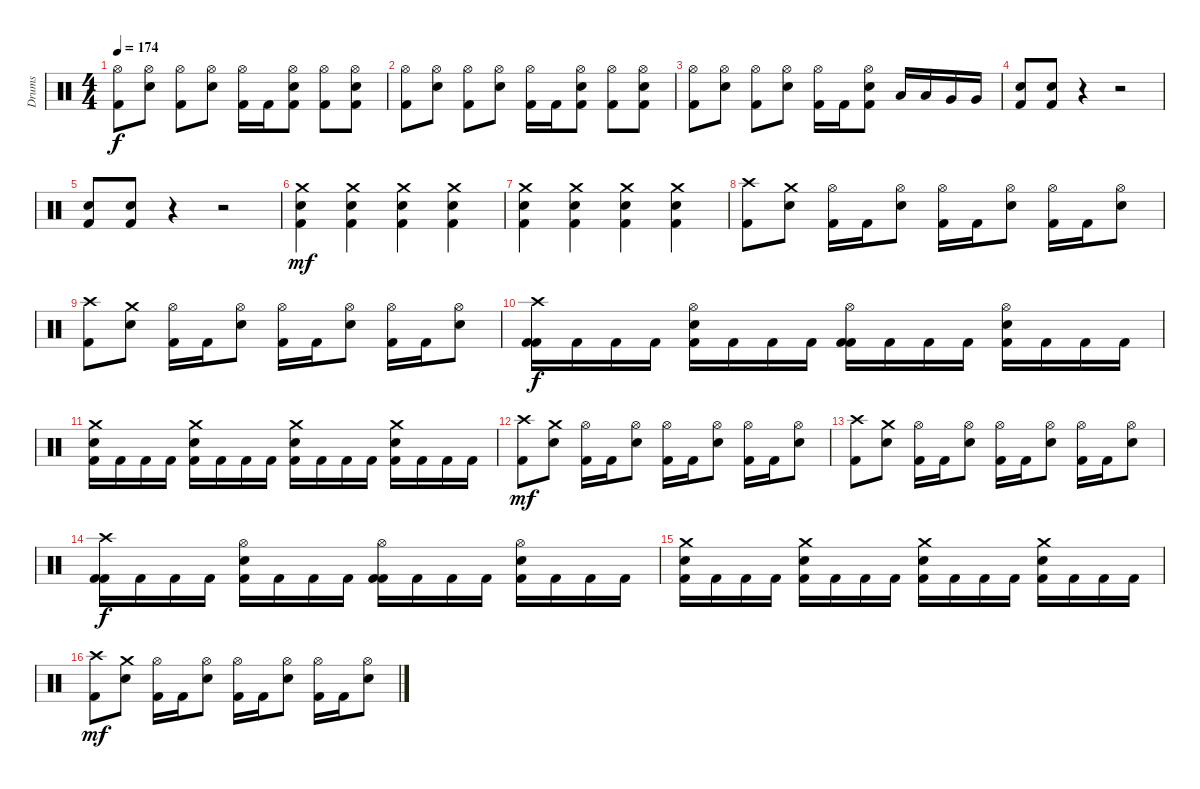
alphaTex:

\track ("Drums" "Drums") {instrument percussion}
\staff {score}
\articulation defaults
\ts (4 4)
\tempo 174
\clef neutral
\ks c
("Hi-Hat (open)" "Kick (hit) 2").8{dy f} ("Hi-Hat (open)" "Electric Snare (hit)").8 ("Hi-Hat (open)" "Kick (hit) 2").8 ("Hi-Hat (open)" "Electric Snare (hit)").8 ("Hi-Hat (open)" "Kick (hit) 2").16 "Kick (hit) 2".16 ("Hi-Hat (open)" "Electric Snare (hit)" "Kick (hit) 2").8 ("Hi-Hat (open)" "Kick (hit) 2").8 ("Hi-Hat (open)" "Electric Snare (hit)" "Kick (hit) 2").8 |
("Hi-Hat (open)" "Kick (hit) 2").8 ("Hi-Hat (open)" "Electric Snare (hit)").8 ("Hi-Hat (open)" "Kick (hit) 2").8 ("Hi-Hat (open)" "Electric Snare (hit)").8 ("Hi-Hat (open)" "Kick (hit) 2").16 "Kick (hit) 2".16 ("Hi-Hat (open)" "Electric Snare (hit)" "Kick (hit) 2").8 ("Hi-Hat (open)" "Kick (hit) 2").8 ("Hi-Hat (open)" "Electric Snare (hit)" "Kick (hit) 2").8 |
("Hi-Hat (open)" "Kick (hit) 2").8 ("Hi-Hat (open)" "Electric Snare (hit)").8 ("Hi-Hat (open)" "Kick (hit) 2").8 ("Hi-Hat (open)" "Electric Snare (hit)").8 ("Hi-Hat (open)" "Kick (hit) 2").16 "Kick (hit) 2".16 ("Hi-Hat (open)" "Electric Snare (hit)" "Kick (hit) 2").8 "Low Tom (hit)".16 "Low Tom (hit)".16 "Very Low Tom (hit)".16 "Very Low Tom (hit)".16 |
("Kick (hit) 2" "Electric Snare (hit)").8 ("Kick (hit) 2" "Electric Snare (hit)").8 r.4 r.2 |
("Kick (hit) 2" "Electric Snare (hit)").8 ("Kick (hit) 2" "Electric Snare (hit)").8 r.4 r.2 |
("Crash medium (hit)" "Kick (hit) 2" "Electric Snare (hit)").4{dy mf} ("Crash medium (hit)" "Kick (hit) 2" "Electric Snare (hit)").4 ("Crash medium (hit)" "Kick (hit) 2" "Electric Snare (hit)").4 ("Crash medium (hit)" "Kick (hit) 2" "Electric Snare (hit)").4 |
("Crash medium (hit)" "Kick (hit) 2" "Electric Snare (hit)").4 ("Crash medium (hit)" "Kick (hit) 2" "Electric Snare (hit)").4 ("Crash medium (hit)" "Kick (hit) 2" "Electric Snare (hit)").4 ("Crash medium (hit)" "Kick (hit) 2" "Electric Snare (hit)").4 |
("Crash high (hit)" "Kick (hit) 2").8 ("Crash medium (hit)" "Electric Snare (hit)").8 ("Hi-Hat (open)" "Kick (hit) 2").16 "Kick (hit) 2".16 ("Hi-Hat (open)" "Electric Snare (hit)").8 ("Hi-Hat (open)" "Kick (hit) 2").16 "Kick (hit) 2".16 ("Hi-Hat (open)" "Electric Snare (hit)").8 ("Hi-Hat (open)" "Kick (hit) 2").16 "Kick (hit) 2".16 ("Hi-Hat (open)" "Electric Snare (hit)").8 |
("Crash high (hit)" "Kick (hit) 2").8 ("Crash medium (hit)" "Electric Snare (hit)").8 ("Hi-Hat (open)" "Kick (hit) 2").16 "Kick (hit) 2".16 ("Hi-Hat (open)" "Electric Snare (hit)").8 ("Hi-Hat (open)" "Kick (hit) 2").16 "Kick (hit) 2".16 ("Hi-Hat (open)" "Electric Snare (hit)").8 ("Hi-Hat (open)" "Kick (hit) 2").16 "Kick (hit) 2".16 ("Hi-Hat (open)" "Electric Snare (hit)").8 |
("Crash high (hit)" "Kick (hit) 2" "Kick (hit) 2").16{dy f} "Kick (hit) 2".16 "Kick (hit) 2".16 "Kick (hit) 2".16 ("Hi-Hat (open)" "Electric Snare (hit)" "Kick (hit) 2").16 "Kick (hit) 2".16 "Kick (hit) 2".16 "Kick (hit) 2".16 ("Hi-Hat (open)" "Kick (hit) 2" "Kick (hit) 2").16 "Kick (hit) 2".16 "Kick (hit) 2".16 "Kick (hit) 2".16 ("Hi-Hat (open)" "Electric Snare (hit)" "Kick (hit) 2").16 "Kick (hit) 2".16 "Kick (hit) 2".16 "Kick (hit) 2".16 |
("Crash medium (hit)" "Electric Snare (hit)" "Kick (hit) 2").16 "Kick (hit) 2".16 "Kick (hit) 2".16 "Kick (hit) 2".16 ("Crash medium (hit)" "Electric Snare (hit)" "Kick (hit) 2").16 "Kick (hit) 2".16 "Kick (hit) 2".16 "Kick (hit) 2".16 ("Crash medium (hit)" "Electric Snare (hit)" "Kick (hit) 2").16 "Kick (hit) 2".16 "Kick (hit) 2".16 "Kick (hit) 2".16 ("Crash medium (hit)" "Electric Snare (hit)" "Kick (hit) 2").16 "Kick (hit) 2".16 "Kick (hit) 2".16 "Kick (hit) 2".16 |
("Crash high (hit)" "Kick (hit) 2").8{dy mf} ("Crash medium (hit)" "Electric Snare (hit)").8 ("Hi-Hat (open)" "Kick (hit) 2").16 "Kick (hit) 2".16 ("Hi-Hat (open)" "Electric Snare (hit)").8 ("Hi-Hat (open)" "Kick (hit) 2").16 "Kick (hit) 2".16 ("Hi-Hat (open)" "Electric Snare (hit)").8 ("Hi-Hat (open)" "Kick (hit) 2").16 "Kick (hit) 2".16 ("Hi-Hat (open)" "Electric Snare (hit)").8 |
("Crash high (hit)" "Kick (hit) 2").8 ("Crash medium (hit)" "Electric Snare (hit)").8 ("Hi-Hat (open)" "Kick (hit) 2").16 "Kick (hit) 2".16 ("Hi-Hat (open)" "Electric Snare (hit)").8 ("Hi-Hat (open)" "Kick (hit) 2").16 "Kick (hit) 2".16 ("Hi-Hat (open)" "Electric Snare (hit)").8 ("Hi-Hat (open)" "Kick (hit) 2").16 "Kick (hit) 2".16 ("Hi-Hat (open)" "Electric Snare (hit)").8 |
("Crash high (hit)" "Kick (hit) 2" "Kick (hit) 2").16{dy f} "Kick (hit) 2".16 "Kick (hit) 2".16 "Kick (hit) 2".16 ("Hi-Hat (open)" "Electric Snare (hit)" "Kick (hit) 2").16 "Kick (hit) 2".16 "Kick (hit) 2".16 "Kick (hit) 2".16 ("Hi-Hat (open)" "Kick (hit) 2" "Kick (hit) 2").16 "Kick (hit) 2".16 "Kick (hit) 2".16 "Kick (hit) 2".16 ("Hi-Hat (open)" "Electric Snare (hit)" "Kick (hit) 2").16 "Kick (hit) 2".16 "Kick (hit) 2".16 "Kick (hit) 2".16 |
("Crash medium (hit)" "Electric Snare (hit)" "Kick (hit) 2").16 "Kick (hit) 2".16 "Kick (hit) 2".16 "Kick (hit) 2".16 ("Crash medium (hit)" "Electric Snare (hit)" "Kick (hit) 2").16 "Kick (hit) 2".16 "Kick (hit) 2".16 "Kick (hit) 2".16 ("Crash medium (hit)" "Electric Snare (hit)" "Kick (hit) 2").16 "Kick (hit) 2".16 "Kick (hit) 2".16 "Kick (hit) 2".16 ("Crash medium (hit)" "Electric Snare (hit)" "Kick (hit) 2").16 "Kick (hit) 2".16 "Kick (hit) 2".16 "Kick (hit) 2".16 |
("Crash high (hit)" "Kick (hit) 2").8{dy mf} ("Crash medium (hit)" "Electric Snare (hit)").8 ("Hi-Hat (open)" "Kick (hit) 2").16 "Kick (hit) 2".16 ("Hi-Hat (open)" "Electric Snare (hit)").8 ("Hi-Hat (open)" "Kick (hit) 2").16 "Kick (hit) 2".16 ("Hi-Hat (open)" "Electric Snare (hit)").8 ("Hi-Hat (open)" "Kick (hit) 2").16 "Kick (hit) 2".16 ("Hi-Hat (open)" "Electric Snare (hit)").8
